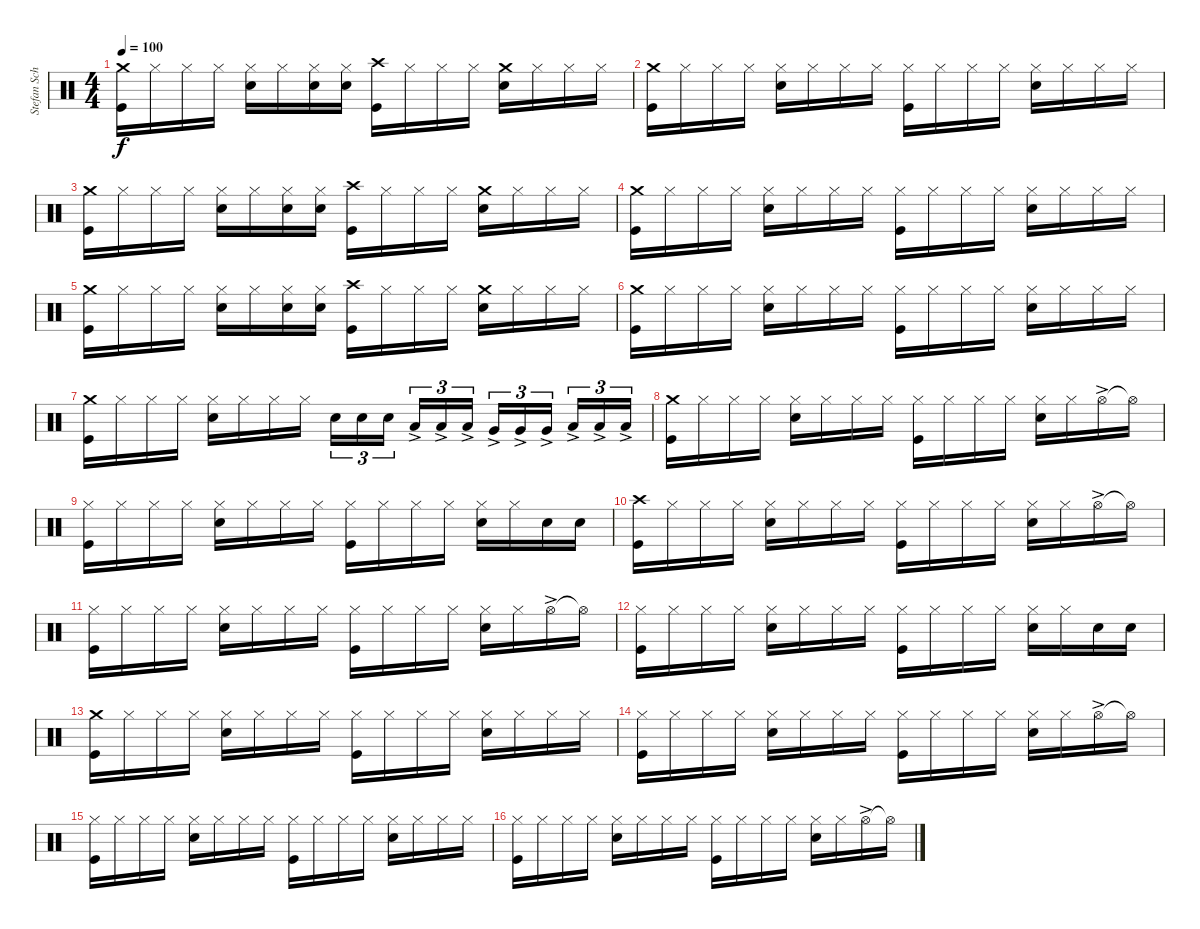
\track ("Stefan Schwarzmann" "Stefan Sch") {instrument percussion}
\staff {score}
\articulation defaults
\ts (4 4)
\tempo 100
\clef neutral
\ks c
("Kick (hit)" "Crash medium (hit)").16{dy f} "Hi-Hat (closed)".16 "Hi-Hat (closed)".16 "Hi-Hat (closed)".16 ("Snare (hit) 2" "Hi-Hat (closed)").16 "Hi-Hat (closed)".16 ("Hi-Hat (closed)" "Snare (hit) 2").16 ("Hi-Hat (closed)" "Snare (hit) 2").16 ("Kick (hit)" "Crash high (hit)").16 "Hi-Hat (closed)".16 "Hi-Hat (closed)".16 "Hi-Hat (closed)".16 ("Snare (hit) 2" "Crash medium (hit)").16 "Hi-Hat (closed)".16 "Hi-Hat (closed)".16 "Hi-Hat (closed)".16 |
("Kick (hit)" "Crash medium (hit)").16 "Hi-Hat (closed)".16 "Hi-Hat (closed)".16 "Hi-Hat (closed)".16 ("Snare (hit) 2" "Hi-Hat (closed)").16 "Hi-Hat (closed)".16 "Hi-Hat (closed)".16 "Hi-Hat (closed)".16 ("Kick (hit)" "Hi-Hat (closed)").16 "Hi-Hat (closed)".16 "Hi-Hat (closed)".16 "Hi-Hat (closed)".16 ("Snare (hit) 2" "Hi-Hat (closed)").16 "Hi-Hat (closed)".16 "Hi-Hat (closed)".16 "Hi-Hat (closed)".16 |
("Kick (hit)" "Crash medium (hit)").16 "Hi-Hat (closed)".16 "Hi-Hat (closed)".16 "Hi-Hat (closed)".16 ("Snare (hit) 2" "Hi-Hat (closed)").16 "Hi-Hat (closed)".16 ("Hi-Hat (closed)" "Snare (hit) 2").16 ("Hi-Hat (closed)" "Snare (hit) 2").16 ("Kick (hit)" "Crash high (hit)").16 "Hi-Hat (closed)".16 "Hi-Hat (closed)".16 "Hi-Hat (closed)".16 ("Snare (hit) 2" "Crash medium (hit)").16 "Hi-Hat (closed)".16 "Hi-Hat (closed)".16 "Hi-Hat (closed)".16 |
("Kick (hit)" "Crash medium (hit)").16 "Hi-Hat (closed)".16 "Hi-Hat (closed)".16 "Hi-Hat (closed)".16 ("Snare (hit) 2" "Hi-Hat (closed)").16 "Hi-Hat (closed)".16 "Hi-Hat (closed)".16 "Hi-Hat (closed)".16 ("Kick (hit)" "Hi-Hat (closed)").16 "Hi-Hat (closed)".16 "Hi-Hat (closed)".16 "Hi-Hat (closed)".16 ("Snare (hit) 2" "Hi-Hat (closed)").16 "Hi-Hat (closed)".16 "Hi-Hat (closed)".16 "Hi-Hat (closed)".16 |
("Kick (hit)" "Crash medium (hit)").16 "Hi-Hat (closed)".16 "Hi-Hat (closed)".16 "Hi-Hat (closed)".16 ("Snare (hit) 2" "Hi-Hat (closed)").16 "Hi-Hat (closed)".16 ("Hi-Hat (closed)" "Snare (hit) 2").16 ("Hi-Hat (closed)" "Snare (hit) 2").16 ("Kick (hit)" "Crash high (hit)").16 "Hi-Hat (closed)".16 "Hi-Hat (closed)".16 "Hi-Hat (closed)".16 ("Snare (hit) 2" "Crash medium (hit)").16 "Hi-Hat (closed)".16 "Hi-Hat (closed)".16 "Hi-Hat (closed)".16 |
("Kick (hit)" "Crash medium (hit)").16 "Hi-Hat (closed)".16 "Hi-Hat (closed)".16 "Hi-Hat (closed)".16 ("Snare (hit) 2" "Hi-Hat (closed)").16 "Hi-Hat (closed)".16 "Hi-Hat (closed)".16 "Hi-Hat (closed)".16 ("Kick (hit)" "Hi-Hat (closed)").16 "Hi-Hat (closed)".16 "Hi-Hat (closed)".16 "Hi-Hat (closed)".16 ("Snare (hit) 2" "Hi-Hat (closed)").16 "Hi-Hat (closed)".16 "Hi-Hat (closed)".16 "Hi-Hat (closed)".16 |
("Kick (hit)" "Crash medium (hit)").16 "Hi-Hat (closed)".16 "Hi-Hat (closed)".16 "Hi-Hat (closed)".16 ("Snare (hit) 2" "Hi-Hat (closed)").16 "Hi-Hat (closed)".16 "Hi-Hat (closed)".16 "Hi-Hat (closed)".16 "Snare (hit) 2".16{tu (3 2)} "Snare (hit) 2".16{tu (3 2)} "Snare (hit) 2".16{tu (3 2)} "Low Tom (hit)"{ac}.16{tu (3 2)} "Low Tom (hit)"{ac}.16{tu (3 2)} "Low Tom (hit)"{ac}.16{tu (3 2)} "Very Low Tom (hit)"{ac}.16{tu (3 2)} "Very Low Tom (hit)"{ac}.16{tu (3 2)} "Very Low Tom (hit)"{ac}.16{tu (3 2)} "Low Floor Tom (hit)"{ac}.16{tu (3 2)} "Low Floor Tom (hit)"{ac}.16{tu (3 2)} "Low Floor Tom (hit)"{ac}.16{tu (3 2)} |
("Kick (hit)" "Crash medium (hit)").16 "Hi-Hat (closed)".16 "Hi-Hat (closed)".16 "Hi-Hat (closed)".16 ("Snare (hit) 2" "Hi-Hat (closed)").16 "Hi-Hat (closed)".16 "Hi-Hat (closed)".16 "Hi-Hat (closed)".16 ("Kick (hit)" "Hi-Hat (closed)").16 "Hi-Hat (closed)".16 "Hi-Hat (closed)".16 "Hi-Hat (closed)".16 ("Snare (hit) 2" "Hi-Hat (closed)").16 "Hi-Hat (closed)".16 "Hi-Hat (open)"{ac}.16 "Hi-Hat (open)"{t}.16 |
("Kick (hit)" "Hi-Hat (closed)").16 "Hi-Hat (closed)".16 "Hi-Hat (closed)".16 "Hi-Hat (closed)".16 ("Snare (hit) 2" "Hi-Hat (closed)").16 "Hi-Hat (closed)".16 "Hi-Hat (closed)".16 "Hi-Hat (closed)".16 ("Kick (hit)" "Hi-Hat (closed)").16 "Hi-Hat (closed)".16 "Hi-Hat (closed)".16 "Hi-Hat (closed)".16 ("Snare (hit) 2" "Hi-Hat (closed)").16 "Hi-Hat (closed)".16 "Snare (hit) 2".16 "Snare (hit) 2".16 |
("Kick (hit)" "Crash high (hit)").16 "Hi-Hat (closed)".16 "Hi-Hat (closed)".16 "Hi-Hat (closed)".16 ("Snare (hit) 2" "Hi-Hat (closed)").16 "Hi-Hat (closed)".16 "Hi-Hat (closed)".16 "Hi-Hat (closed)".16 ("Kick (hit)" "Hi-Hat (closed)").16 "Hi-Hat (closed)".16 "Hi-Hat (closed)".16 "Hi-Hat (closed)".16 ("Snare (hit) 2" "Hi-Hat (closed)").16 "Hi-Hat (closed)".16 "Hi-Hat (open)"{ac}.16 "Hi-Hat (open)"{t}.16 |
("Kick (hit)" "Hi-Hat (closed)").16 "Hi-Hat (closed)".16 "Hi-Hat (closed)".16 "Hi-Hat (closed)".16 ("Snare (hit) 2" "Hi-Hat (closed)").16 "Hi-Hat (closed)".16 "Hi-Hat (closed)".16 "Hi-Hat (closed)".16 ("Kick (hit)" "Hi-Hat (closed)").16 "Hi-Hat (closed)".16 "Hi-Hat (closed)".16 "Hi-Hat (closed)".16 ("Snare (hit) 2" "Hi-Hat (closed)").16 "Hi-Hat (closed)".16 "Hi-Hat (open)"{ac}.16 "Hi-Hat (open)"{t}.16 |
("Kick (hit)" "Hi-Hat (closed)").16 "Hi-Hat (closed)".16 "Hi-Hat (closed)".16 "Hi-Hat (closed)".16 ("Snare (hit) 2" "Hi-Hat (closed)").16 "Hi-Hat (closed)".16 "Hi-Hat (closed)".16 "Hi-Hat (closed)".16 ("Kick (hit)" "Hi-Hat (closed)").16 "Hi-Hat (closed)".16 "Hi-Hat (closed)".16 "Hi-Hat (closed)".16 ("Snare (hit) 2" "Hi-Hat (closed)").16 "Hi-Hat (closed)".16 "Snare (hit) 2".16 "Snare (hit) 2".16 |
("Kick (hit)" "Crash medium (hit)").16 "Hi-Hat (closed)".16 "Hi-Hat (closed)".16 "Hi-Hat (closed)".16 ("Snare (hit) 2" "Hi-Hat (closed)").16 "Hi-Hat (closed)".16 "Hi-Hat (closed)".16 "Hi-Hat (closed)".16 ("Kick (hit)" "Hi-Hat (closed)").16 "Hi-Hat (closed)".16 "Hi-Hat (closed)".16 "Hi-Hat (closed)".16 ("Snare (hit) 2" "Hi-Hat (closed)").16 "Hi-Hat (closed)".16 "Hi-Hat (closed)".16 "Hi-Hat (closed)".16 |
("Kick (hit)" "Hi-Hat (closed)").16 "Hi-Hat (closed)".16 "Hi-Hat (closed)".16 "Hi-Hat (closed)".16 ("Snare (hit) 2" "Hi-Hat (closed)").16 "Hi-Hat (closed)".16 "Hi-Hat (closed)".16 "Hi-Hat (closed)".16 ("Kick (hit)" "Hi-Hat (closed)").16 "Hi-Hat (closed)".16 "Hi-Hat (closed)".16 "Hi-Hat (closed)".16 ("Snare (hit) 2" "Hi-Hat (closed)").16 "Hi-Hat (closed)".16 "Hi-Hat (open)"{ac}.16 "Hi-Hat (open)"{t}.16 |
("Kick (hit)" "Hi-Hat (closed)").16 "Hi-Hat (closed)".16 "Hi-Hat (closed)".16 "Hi-Hat (closed)".16 ("Snare (hit) 2" "Hi-Hat (closed)").16 "Hi-Hat (closed)".16 "Hi-Hat (closed)".16 "Hi-Hat (closed)".16 ("Kick (hit)" "Hi-Hat (closed)").16 "Hi-Hat (closed)".16 "Hi-Hat (closed)".16 "Hi-Hat (closed)".16 ("Snare (hit) 2" "Hi-Hat (closed)").16 "Hi-Hat (closed)".16 "Hi-Hat (closed)".16 "Hi-Hat (closed)".16 |
("Kick (hit)" "Hi-Hat (closed)").16 "Hi-Hat (closed)".16 "Hi-Hat (closed)".16 "Hi-Hat (closed)".16 ("Snare (hit) 2" "Hi-Hat (closed)").16 "Hi-Hat (closed)".16 "Hi-Hat (closed)".16 "Hi-Hat (closed)".16 ("Kick (hit)" "Hi-Hat (closed)").16 "Hi-Hat (closed)".16 "Hi-Hat (closed)".16 "Hi-Hat (closed)".16 ("Snare (hit) 2" "Hi-Hat (closed)").16 "Hi-Hat (closed)".16 "Hi-Hat (open)"{ac}.16 "Hi-Hat (open)"{t}.16
